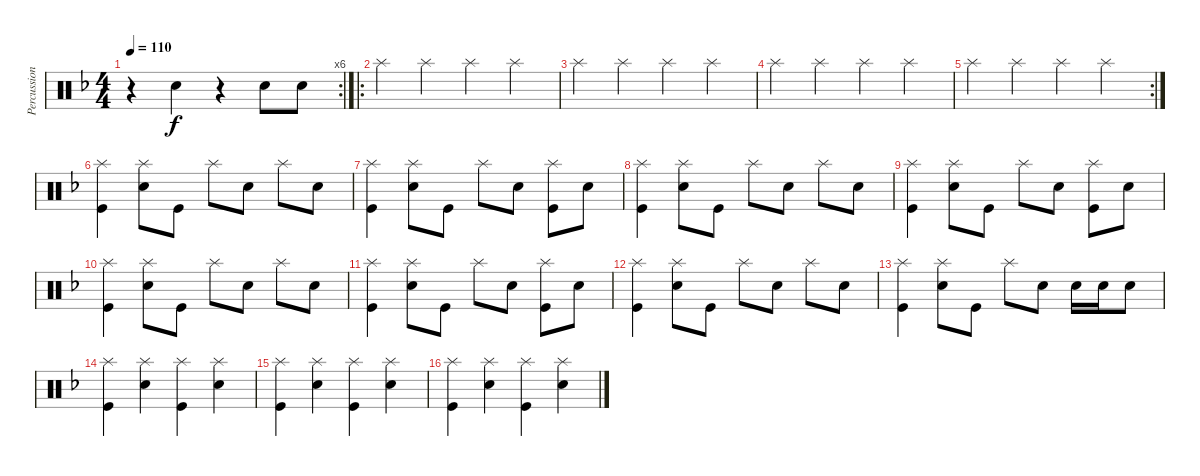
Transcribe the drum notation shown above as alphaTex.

\track ("Percussion" "Percussion") {instrument percussion}
\staff {score}
\articulation defaults
\rc 6
\ts (4 4)
\tempo 110
\clef neutral
\ks dminor
r.4{dy f} "Hand Clap (hit)".4 r.4 "Hand Clap (hit)".8 "Hand Clap (hit)".8 |
\ro "Splash (hit)".4 "Splash (hit)".4 "Splash (hit)".4 "Splash (hit)".4
|
"Splash (hit)".4 "Splash (hit)".4 "Splash (hit)".4 "Splash (hit)".4 |
"Splash (hit)".4 "Splash (hit)".4 "Splash (hit)".4 "Splash (hit)".4 |
\rc 2 "Splash (hit)".4 "Splash (hit)".4 "Splash (hit)".4 "Splash (hit)".4
|
("Splash (hit)" "Kick (hit)").4 ("Splash (hit)" "Snare (hit) 2").8 "Kick (hit)".8 "Splash (hit)".8 "Snare (hit) 2".8 "Splash (hit)".8 "Snare (hit) 2".8 |
("Splash (hit)" "Kick (hit)").4 ("Splash (hit)" "Snare (hit) 2").8 "Kick (hit)".8 "Splash (hit)".8 "Snare (hit) 2".8 ("Splash (hit)" "Kick (hit)").8 "Snare (hit) 2".8 |
("Splash (hit)" "Kick (hit)").4 ("Splash (hit)" "Snare (hit) 2").8 "Kick (hit)".8 "Splash (hit)".8 "Snare (hit) 2".8 "Splash (hit)".8 "Snare (hit) 2".8 |
("Splash (hit)" "Kick (hit)").4 ("Splash (hit)" "Snare (hit) 2").8 "Kick (hit)".8 "Splash (hit)".8 "Snare (hit) 2".8 ("Splash (hit)" "Kick (hit)").8 "Snare (hit) 2".8 |
("Splash (hit)" "Kick (hit)").4 ("Splash (hit)" "Snare (hit) 2").8 "Kick (hit)".8 "Splash (hit)".8 "Snare (hit) 2".8 "Splash (hit)".8 "Snare (hit) 2".8 |
("Splash (hit)" "Kick (hit)").4 ("Splash (hit)" "Snare (hit) 2").8 "Kick (hit)".8 "Splash (hit)".8 "Snare (hit) 2".8 ("Splash (hit)" "Kick (hit)").8 "Snare (hit) 2".8 |
("Splash (hit)" "Kick (hit)").4 ("Splash (hit)" "Snare (hit) 2").8 "Kick (hit)".8 "Splash (hit)".8 "Snare (hit) 2".8 "Splash (hit)".8 "Snare (hit) 2".8 |
("Splash (hit)" "Kick (hit)").4 ("Splash (hit)" "Snare (hit) 2").8 "Kick (hit)".8 "Splash (hit)".8 "Snare (hit) 2".8 "Snare (hit) 2".16 "Snare (hit) 2".16 "Snare (hit) 2".8 |
("Splash (hit)" "Kick (hit)").4 ("Splash (hit)" "Snare (hit) 2").4 ("Splash (hit)" "Kick (hit)").4 ("Splash (hit)" "Snare (hit) 2").4 |
("Splash (hit)" "Kick (hit)").4 ("Splash (hit)" "Snare (hit) 2").4 ("Splash (hit)" "Kick (hit)").4 ("Splash (hit)" "Snare (hit) 2").4 |
("Splash (hit)" "Kick (hit)").4 ("Splash (hit)" "Snare (hit) 2").4 ("Splash (hit)" "Kick (hit)").4 ("Splash (hit)" "Snare (hit) 2").4
